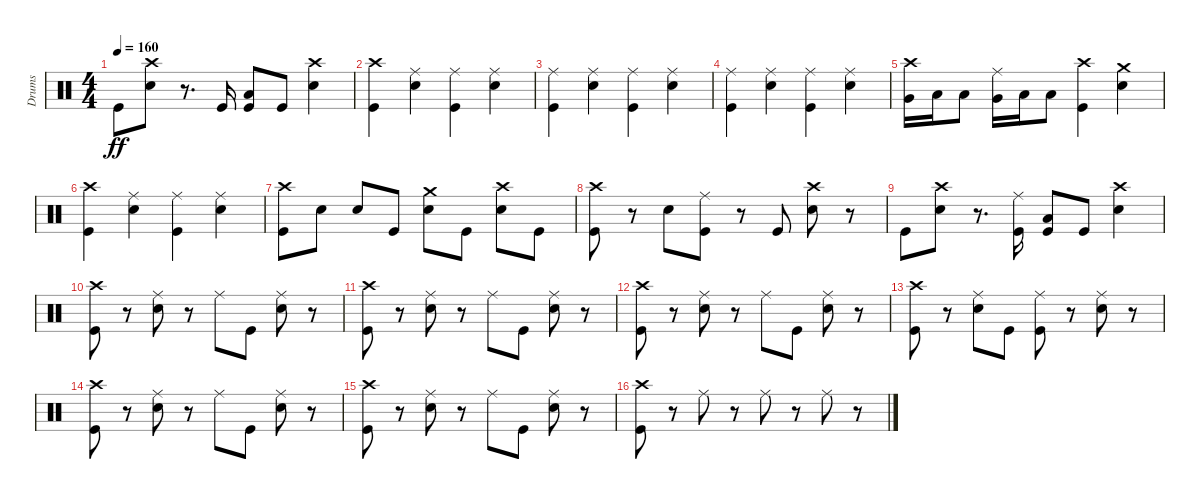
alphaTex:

\track ("Drums" "Drums") {instrument percussion}
\staff {score}
\articulation defaults
\ts (4 4)
\tempo 160
\clef neutral
\ks c "Kick (hit)".8{dy ff}
("Crash high (hit)" "Snare (hit) 2").8 r.8{d} "Kick (hit)".16 ("Low Floor Tom (hit)" "Kick (hit)").8 "Kick (hit)".8 ("Crash high (hit)" "Snare (hit) 2").4 |
("Crash high (hit)" "Kick (hit)").4 ("Ride (middle)" "Snare (hit) 2").4 ("Ride (middle)" "Kick (hit)").4 ("Ride (middle)" "Snare (hit) 2").4 |
("Ride (middle)" "Kick (hit)").4 ("Ride (middle)" "Snare (hit) 2").4 ("Ride (middle)" "Kick (hit)").4 ("Ride (middle)" "Snare (hit) 2").4 |
("Ride (middle)" "Kick (hit)").4 ("Ride (middle)" "Snare (hit) 2").4 ("Ride (middle)" "Kick (hit)").4 ("Ride (middle)" "Snare (hit) 2").4 |
("Crash high (hit)" "Very Low Tom (hit)").16 "Low Floor Tom (hit)".16 "Low Floor Tom (hit)".8 ("Ride (middle)" "Very Low Tom (hit)").16 "Low Floor Tom (hit)".16 "Low Floor Tom (hit)".8 ("Crash high (hit)" "Kick (hit)").4 ("Crash medium (hit)" "Snare (hit) 2").4 |
("Crash high (hit)" "Kick (hit)").4 ("Ride (middle)" "Snare (hit) 2").4 ("Ride (middle)" "Kick (hit)").4 ("Ride (middle)" "Snare (hit) 2").4 |
("Crash high (hit)" "Kick (hit)").8 "Snare (hit) 2".8 "Snare (hit) 2".8 "Kick (hit)".8 ("Crash medium (hit)" "Snare (hit) 2").8 "Kick (hit)".8 ("Crash high (hit)" "Snare (hit) 2").8 "Kick (hit)".8 |
("Crash high (hit)" "Kick (hit)").8 r.8 "Snare (hit) 2".8 ("Ride (middle)" "Kick (hit)").8 r.8 "Kick (hit)".8 ("Crash high (hit)" "Snare (hit) 2").8 r.8 |
"Kick (hit)".8 ("Crash high (hit)" "Snare (hit) 2").8 r.8{d} ("Ride (middle)" "Kick (hit)").16 ("Low Floor Tom (hit)" "Kick (hit)").8 "Kick (hit)".8 ("Crash high (hit)" "Snare (hit) 2").4 |
("Crash high (hit)" "Kick (hit)").8 r.8 ("Ride (middle)" "Snare (hit) 2").8 r.8 "Ride (middle)".8 "Kick (hit)".8 ("Ride (middle)" "Snare (hit) 2").8 r.8 |
("Crash high (hit)" "Kick (hit)").8 r.8 ("Ride (middle)" "Snare (hit) 2").8 r.8 "Ride (middle)".8 "Kick (hit)".8 ("Ride (middle)" "Snare (hit) 2").8 r.8 |
("Crash high (hit)" "Kick (hit)").8 r.8 ("Ride (middle)" "Snare (hit) 2").8 r.8 "Ride (middle)".8 "Kick (hit)".8 ("Ride (middle)" "Snare (hit) 2").8 r.8 |
("Crash high (hit)" "Kick (hit)").8 r.8 ("Ride (middle)" "Snare (hit) 2").8 "Kick (hit)".8 ("Ride (middle)" "Kick (hit)").8 r.8 ("Ride (middle)" "Snare (hit) 2").8 r.8 |
("Crash high (hit)" "Kick (hit)").8 r.8 ("Ride (middle)" "Snare (hit) 2").8 r.8 "Ride (middle)".8 "Kick (hit)".8 ("Ride (middle)" "Snare (hit) 2").8 r.8 |
("Crash high (hit)" "Kick (hit)").8 r.8 ("Ride (middle)" "Snare (hit) 2").8 r.8 "Ride (middle)".8 "Kick (hit)".8 ("Ride (middle)" "Snare (hit) 2").8 r.8 |
("Crash high (hit)" "Kick (hit)").8 r.8 "Ride (middle)".8 r.8 "Ride (middle)".8 r.8 "Ride (middle)".8 r.8
